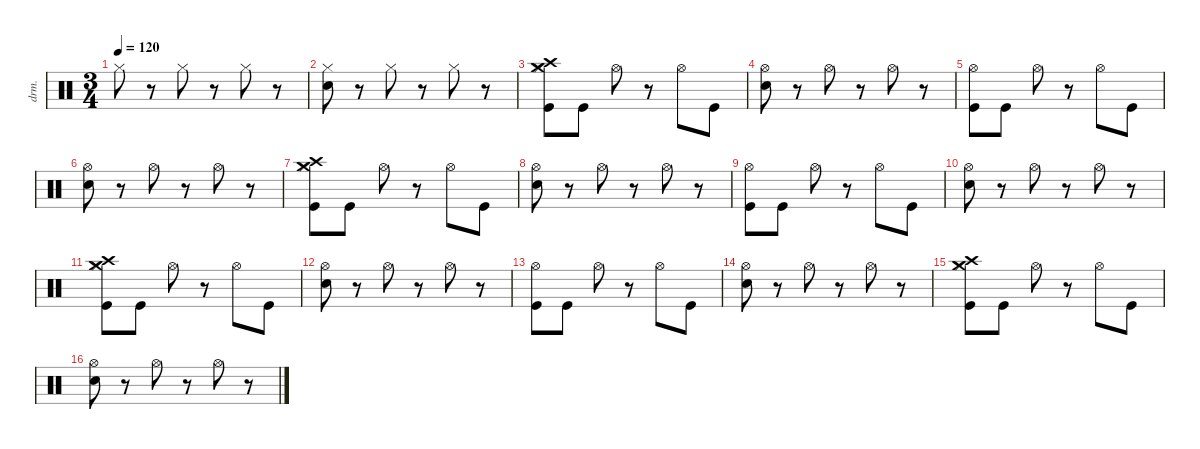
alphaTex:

\defaultSystemsLayout 4
\hideDynamics
\bracketExtendMode nobrackets
\otherSystemsTrackNameOrientation horizontal
\track ("Drumkit" "drm.") {instrument percussion}
\staff {score}
\articulation defaults
\ts (3 4)
\tempo 120
\clef neutral
\ks c "Hi-Hat (closed)".8{dy mf}
r.8 "Hi-Hat (closed)".8 r.8 "Hi-Hat (closed)".8 r.8 |
("Hi-Hat (closed)" "Snare (hit) 2").8 r.8 "Hi-Hat (closed)".8 r.8 "Hi-Hat (closed)".8 r.8 |
("Kick (hit)" "Hi-Hat (closed)" "Crash medium (hit)" "Crash high (hit)").8 "Kick (hit)".8 "Hi-Hat (open)".8 r.8 "Hi-Hat (open)".8 "Kick (hit)".8 |
("Hi-Hat (open)" "Snare (hit) 2").8 r.8 "Hi-Hat (open)".8 r.8 "Hi-Hat (open)".8 r.8 |
("Kick (hit)" "Hi-Hat (open)").8 "Kick (hit)".8 "Hi-Hat (open)".8 r.8 "Hi-Hat (open)".8 "Kick (hit)".8 |
("Hi-Hat (open)" "Snare (hit) 2").8 r.8 "Hi-Hat (open)".8 r.8 "Hi-Hat (open)".8 r.8 |
("Kick (hit)" "Hi-Hat (closed)" "Crash medium (hit)" "Crash high (hit)").8 "Kick (hit)".8 "Hi-Hat (open)".8 r.8 "Hi-Hat (open)".8 "Kick (hit)".8 |
("Hi-Hat (open)" "Snare (hit) 2").8 r.8 "Hi-Hat (open)".8 r.8 "Hi-Hat (open)".8 r.8 |
("Kick (hit)" "Hi-Hat (open)").8 "Kick (hit)".8 "Hi-Hat (open)".8 r.8 "Hi-Hat (open)".8 "Kick (hit)".8 |
("Hi-Hat (open)" "Snare (hit) 2").8 r.8 "Hi-Hat (open)".8 r.8 "Hi-Hat (open)".8 r.8 |
("Kick (hit)" "Hi-Hat (closed)" "Crash medium (hit)" "Crash high (hit)").8 "Kick (hit)".8 "Hi-Hat (open)".8 r.8 "Hi-Hat (open)".8 "Kick (hit)".8 |
("Hi-Hat (open)" "Snare (hit) 2").8 r.8 "Hi-Hat (open)".8 r.8 "Hi-Hat (open)".8 r.8 |
("Kick (hit)" "Hi-Hat (open)").8 "Kick (hit)".8 "Hi-Hat (open)".8 r.8 "Hi-Hat (open)".8 "Kick (hit)".8 |
("Hi-Hat (open)" "Snare (hit) 2").8 r.8 "Hi-Hat (open)".8 r.8 "Hi-Hat (open)".8 r.8 |
("Kick (hit)" "Hi-Hat (closed)" "Crash medium (hit)" "Crash high (hit)").8 "Kick (hit)".8 "Hi-Hat (open)".8 r.8 "Hi-Hat (open)".8 "Kick (hit)".8 |
("Hi-Hat (open)" "Snare (hit) 2").8 r.8 "Hi-Hat (open)".8 r.8 "Hi-Hat (open)".8 r.8
